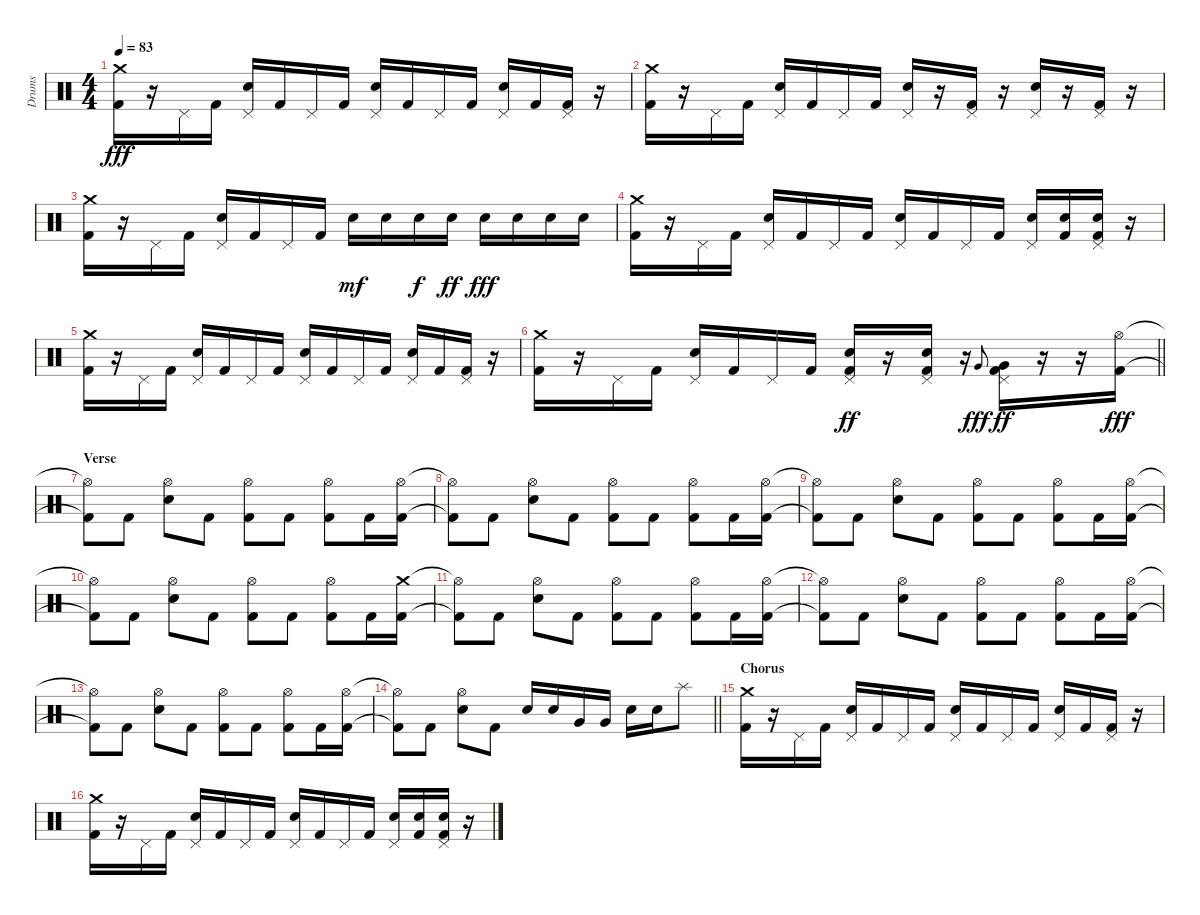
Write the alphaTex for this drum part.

\track ("Drums" "Drums") {instrument percussion}
\staff {score}
\articulation defaults
\ts (4 4)
\tempo 83
\clef neutral
\ks c
("Crash medium (hit)" "Kick (hit) 2").16{dy fff} r.16 "Pedal Hi-Hat (hit)".16 "Kick (hit) 2".16 ("Pedal Hi-Hat (hit)" "Snare (hit) 2").16 "Kick (hit) 2".16 "Pedal Hi-Hat (hit)".16 "Kick (hit) 2".16 ("Pedal Hi-Hat (hit)" "Snare (hit) 2").16 "Kick (hit) 2".16 "Pedal Hi-Hat (hit)".16 "Kick (hit) 2".16 ("Pedal Hi-Hat (hit)" "Snare (hit) 2").16 "Kick (hit) 2".16 ("Pedal Hi-Hat (hit)" "Kick (hit) 2").16 r.16 |
("Crash medium (hit)" "Kick (hit) 2").16 r.16 "Pedal Hi-Hat (hit)".16 "Kick (hit) 2".16 ("Pedal Hi-Hat (hit)" "Snare (hit) 2").16 "Kick (hit) 2".16 "Pedal Hi-Hat (hit)".16 "Kick (hit) 2".16 ("Pedal Hi-Hat (hit)" "Snare (hit) 2").16 r.16 ("Pedal Hi-Hat (hit)" "Kick (hit) 2").16 r.16 ("Pedal Hi-Hat (hit)" "Snare (hit) 2").16 r.16 ("Pedal Hi-Hat (hit)" "Kick (hit) 2").16 r.16 |
("Crash medium (hit)" "Kick (hit) 2").16 r.16 "Pedal Hi-Hat (hit)".16 "Kick (hit) 2".16 ("Pedal Hi-Hat (hit)" "Snare (hit) 2").16 "Kick (hit) 2".16 "Pedal Hi-Hat (hit)".16 "Kick (hit) 2".16 "Snare (hit) 2".16{dy mf} "Snare (hit) 2".16 "Snare (hit) 2".16{dy f} "Snare (hit) 2".16{dy ff} "Snare (hit) 2".16{dy fff} "Snare (hit) 2".16 "Snare (hit) 2".16 "Snare (hit) 2".16 |
("Crash medium (hit)" "Kick (hit) 2").16 r.16 "Pedal Hi-Hat (hit)".16 "Kick (hit) 2".16 ("Pedal Hi-Hat (hit)" "Snare (hit) 2").16 "Kick (hit) 2".16 "Pedal Hi-Hat (hit)".16 "Kick (hit) 2".16 ("Pedal Hi-Hat (hit)" "Snare (hit) 2").16 "Kick (hit) 2".16 "Pedal Hi-Hat (hit)".16 "Kick (hit) 2".16 ("Pedal Hi-Hat (hit)" "Snare (hit) 2").16 ("Snare (hit) 2" "Kick (hit) 2").16 ("Pedal Hi-Hat (hit)" "Snare (hit) 2" "Kick (hit) 2").16 r.16 |
("Crash medium (hit)" "Kick (hit) 2").16 r.16 "Pedal Hi-Hat (hit)".16 "Kick (hit) 2".16 ("Pedal Hi-Hat (hit)" "Snare (hit) 2").16 "Kick (hit) 2".16 "Pedal Hi-Hat (hit)".16 "Kick (hit) 2".16 ("Pedal Hi-Hat (hit)" "Snare (hit) 2").16 "Kick (hit) 2".16 "Pedal Hi-Hat (hit)".16 "Kick (hit) 2".16 ("Pedal Hi-Hat (hit)" "Snare (hit) 2").16 "Kick (hit) 2".16 ("Pedal Hi-Hat (hit)" "Kick (hit) 2").16 r.16 |
\barLineRight lightlight
("Crash medium (hit)" "Kick (hit) 2").16 r.16 "Pedal Hi-Hat (hit)".16 "Kick (hit) 2".16 ("Pedal Hi-Hat (hit)" "Snare (hit) 2").16 "Kick (hit) 2".16 "Pedal Hi-Hat (hit)".16 "Kick (hit) 2".16 ("Pedal Hi-Hat (hit)" "Snare (hit) 2" "Kick (hit) 2").16{dy ff} r.16 ("Pedal Hi-Hat (hit)" "Snare (hit) 2" "Kick (hit) 2").16 r.16 "Very Low Tom (hit)".8{gr onbeat dy fff} ("Pedal Hi-Hat (hit)" "Very Low Tom (hit)" "Kick (hit) 2").16{dy ff} r.16 r.16 ("Hi-Hat (open)" "Kick (hit) 2").16{dy fff} |
\section ("" "Verse")
("Hi-Hat (open)"{t} "Kick (hit) 2"{t}).8 "Kick (hit) 2".8 ("Hi-Hat (open)" "Snare (hit) 2").8 "Kick (hit) 2".8 ("Hi-Hat (open)" "Kick (hit) 2").8 "Kick (hit) 2".8 ("Hi-Hat (open)" "Kick (hit) 2").8 "Kick (hit) 2".16 ("Hi-Hat (open)" "Kick (hit) 2").16 |
("Hi-Hat (open)"{t} "Kick (hit) 2"{t}).8 "Kick (hit) 2".8 ("Hi-Hat (open)" "Snare (hit) 2").8 "Kick (hit) 2".8 ("Hi-Hat (open)" "Kick (hit) 2").8 "Kick (hit) 2".8 ("Hi-Hat (open)" "Kick (hit) 2").8 "Kick (hit) 2".16 ("Hi-Hat (open)" "Kick (hit) 2").16 |
("Hi-Hat (open)"{t} "Kick (hit) 2"{t}).8 "Kick (hit) 2".8 ("Hi-Hat (open)" "Snare (hit) 2").8 "Kick (hit) 2".8 ("Hi-Hat (open)" "Kick (hit) 2").8 "Kick (hit) 2".8 ("Hi-Hat (open)" "Kick (hit) 2").8 "Kick (hit) 2".16 ("Hi-Hat (open)" "Kick (hit) 2").16 |
("Hi-Hat (open)"{t} "Kick (hit) 2"{t}).8 "Kick (hit) 2".8 ("Hi-Hat (open)" "Snare (hit) 2").8 "Kick (hit) 2".8 ("Hi-Hat (open)" "Kick (hit) 2").8 "Kick (hit) 2".8 ("Hi-Hat (open)" "Kick (hit) 2").8 "Kick (hit) 2".16 ("Crash medium (hit)" "Kick (hit) 2").16 |
("Hi-Hat (open)"{t} "Kick (hit) 2"{t}).8 "Kick (hit) 2".8 ("Hi-Hat (open)" "Snare (hit) 2").8 "Kick (hit) 2".8 ("Hi-Hat (open)" "Kick (hit) 2").8 "Kick (hit) 2".8 ("Hi-Hat (open)" "Kick (hit) 2").8 "Kick (hit) 2".16 ("Hi-Hat (open)" "Kick (hit) 2").16 |
("Hi-Hat (open)"{t} "Kick (hit) 2"{t}).8 "Kick (hit) 2".8 ("Hi-Hat (open)" "Snare (hit) 2").8 "Kick (hit) 2".8 ("Hi-Hat (open)" "Kick (hit) 2").8 "Kick (hit) 2".8 ("Hi-Hat (open)" "Kick (hit) 2").8 "Kick (hit) 2".16 ("Hi-Hat (open)" "Kick (hit) 2").16 |
("Hi-Hat (open)"{t} "Kick (hit) 2"{t}).8 "Kick (hit) 2".8 ("Hi-Hat (open)" "Snare (hit) 2").8 "Kick (hit) 2".8 ("Hi-Hat (open)" "Kick (hit) 2").8 "Kick (hit) 2".8 ("Hi-Hat (open)" "Kick (hit) 2").8 "Kick (hit) 2".16 ("Hi-Hat (open)" "Kick (hit) 2").16 |
\barLineRight lightlight
("Hi-Hat (open)"{t} "Kick (hit) 2"{t}).8 "Kick (hit) 2".8 ("Hi-Hat (open)" "Snare (hit) 2").8 "Kick (hit) 2".8 "Snare (hit) 2".16 "Snare (hit) 2".16 "Very Low Tom (hit)".16 "Very Low Tom (hit)".16 "Snare (hit) 2".16 "Snare (hit) 2".16 "Splash (hit)".8 |
\section ("" "Chorus")
("Crash medium (hit)" "Kick (hit) 2").16 r.16 "Pedal Hi-Hat (hit)".16 "Kick (hit) 2".16 ("Pedal Hi-Hat (hit)" "Snare (hit) 2").16 "Kick (hit) 2".16 "Pedal Hi-Hat (hit)".16 "Kick (hit) 2".16 ("Pedal Hi-Hat (hit)" "Snare (hit) 2").16 "Kick (hit) 2".16 "Pedal Hi-Hat (hit)".16 "Kick (hit) 2".16 ("Pedal Hi-Hat (hit)" "Snare (hit) 2").16 "Kick (hit) 2".16 ("Pedal Hi-Hat (hit)" "Kick (hit) 2").16 r.16 |
("Crash medium (hit)" "Kick (hit) 2").16 r.16 "Pedal Hi-Hat (hit)".16 "Kick (hit) 2".16 ("Pedal Hi-Hat (hit)" "Snare (hit) 2").16 "Kick (hit) 2".16 "Pedal Hi-Hat (hit)".16 "Kick (hit) 2".16 ("Pedal Hi-Hat (hit)" "Snare (hit) 2").16 "Kick (hit) 2".16 "Pedal Hi-Hat (hit)".16 "Kick (hit) 2".16 ("Pedal Hi-Hat (hit)" "Snare (hit) 2").16 ("Snare (hit) 2" "Kick (hit) 2").16 ("Pedal Hi-Hat (hit)" "Snare (hit) 2" "Kick (hit) 2").16 r.16
